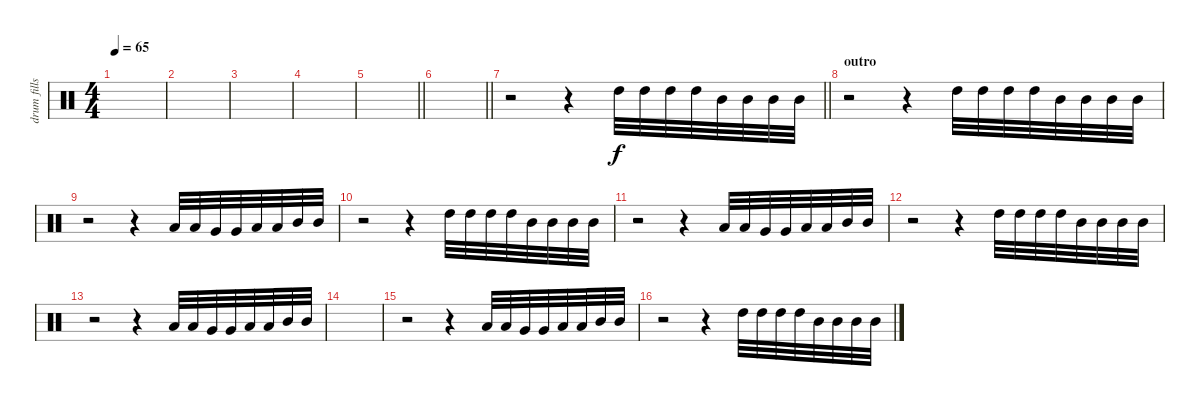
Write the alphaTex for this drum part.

\track ("drum fills" "drum fills") {instrument percussion}
\staff {score}
\articulation defaults
\ts (4 4)
\tempo 65
\clef neutral
\ks c
|
|
|
|
\barLineRight lightlight
|
\barLineRight lightlight
|
\barLineRight lightlight
r.2 r.4 "High Tom (hit)".32 "High Tom (hit)".32 "High Tom (hit)".32 "High Tom (hit)".32 "Mid Tom (hit)".32 "Mid Tom (hit)".32 "Mid Tom (hit)".32 "Mid Tom (hit)".32 |
\section ("" "outro")
r.2 r.4 "High Tom (hit)".32 "High Tom (hit)".32 "High Tom (hit)".32 "High Tom (hit)".32 "Mid Tom (hit)".32 "Mid Tom (hit)".32 "Mid Tom (hit)".32 "Mid Tom (hit)".32 |
r.2 r.4 "Low Floor Tom (hit)".32 "Low Floor Tom (hit)".32 "Very Low Tom (hit)".32 "Very Low Tom (hit)".32 "Low Tom (hit)".32 "Low Tom (hit)".32 "Mid Tom (hit)".32 "Mid Tom (hit)".32 |
r.2 r.4 "High Tom (hit)".32 "High Tom (hit)".32 "High Tom (hit)".32 "High Tom (hit)".32 "Mid Tom (hit)".32 "Mid Tom (hit)".32 "Mid Tom (hit)".32 "Mid Tom (hit)".32 |
r.2 r.4 "Low Floor Tom (hit)".32 "Low Floor Tom (hit)".32 "Very Low Tom (hit)".32 "Very Low Tom (hit)".32 "Low Tom (hit)".32 "Low Tom (hit)".32 "Mid Tom (hit)".32 "Mid Tom (hit)".32 |
r.2 r.4 "High Tom (hit)".32 "High Tom (hit)".32 "High Tom (hit)".32 "High Tom (hit)".32 "Mid Tom (hit)".32 "Mid Tom (hit)".32 "Mid Tom (hit)".32 "Mid Tom (hit)".32 |
r.2 r.4 "Low Floor Tom (hit)".32 "Low Floor Tom (hit)".32 "Very Low Tom (hit)".32 "Very Low Tom (hit)".32 "Low Tom (hit)".32 "Low Tom (hit)".32 "Mid Tom (hit)".32 "Mid Tom (hit)".32 |
|
r.2 r.4 "Low Floor Tom (hit)".32 "Low Floor Tom (hit)".32 "Very Low Tom (hit)".32 "Very Low Tom (hit)".32 "Low Tom (hit)".32 "Low Tom (hit)".32 "Mid Tom (hit)".32 "Mid Tom (hit)".32 |
r.2 r.4 "High Tom (hit)".32 "High Tom (hit)".32 "High Tom (hit)".32 "High Tom (hit)".32 "Mid Tom (hit)".32 "Mid Tom (hit)".32 "Mid Tom (hit)".32 "Mid Tom (hit)".32
